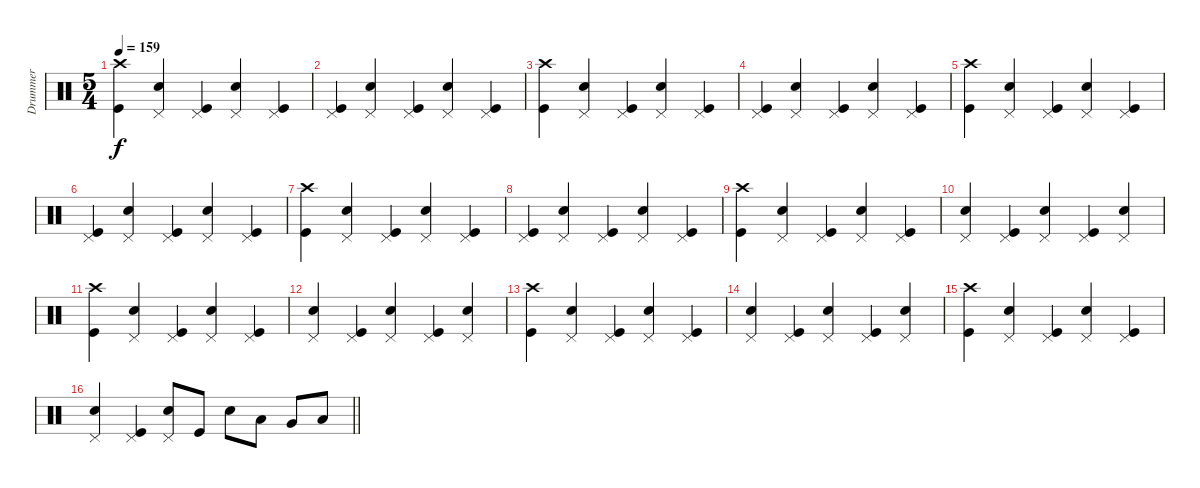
\track ("Drummer" "Drummer") {instrument percussion}
\staff {score}
\articulation defaults
\ts (5 4)
\tempo 159
\clef neutral
\ks c
("Kick (hit)" "Crash high (hit)").4{dy f} ("Pedal Hi-Hat (hit)" "Snare (hit) 2").4 ("Kick (hit)" "Pedal Hi-Hat (hit)").4 ("Pedal Hi-Hat (hit)" "Snare (hit) 2").4 ("Kick (hit)" "Pedal Hi-Hat (hit)").4 |
("Kick (hit)" "Pedal Hi-Hat (hit)").4 ("Pedal Hi-Hat (hit)" "Snare (hit) 2").4 ("Kick (hit)" "Pedal Hi-Hat (hit)").4 ("Pedal Hi-Hat (hit)" "Snare (hit) 2").4 ("Kick (hit)" "Pedal Hi-Hat (hit)").4 |
("Kick (hit)" "Crash high (hit)").4 ("Pedal Hi-Hat (hit)" "Snare (hit) 2").4 ("Kick (hit)" "Pedal Hi-Hat (hit)").4 ("Pedal Hi-Hat (hit)" "Snare (hit) 2").4 ("Kick (hit)" "Pedal Hi-Hat (hit)").4 |
("Kick (hit)" "Pedal Hi-Hat (hit)").4 ("Pedal Hi-Hat (hit)" "Snare (hit) 2").4 ("Kick (hit)" "Pedal Hi-Hat (hit)").4 ("Pedal Hi-Hat (hit)" "Snare (hit) 2").4 ("Kick (hit)" "Pedal Hi-Hat (hit)").4 |
("Kick (hit)" "Crash high (hit)").4 ("Pedal Hi-Hat (hit)" "Snare (hit) 2").4 ("Kick (hit)" "Pedal Hi-Hat (hit)").4 ("Pedal Hi-Hat (hit)" "Snare (hit) 2").4 ("Kick (hit)" "Pedal Hi-Hat (hit)").4 |
("Kick (hit)" "Pedal Hi-Hat (hit)").4 ("Pedal Hi-Hat (hit)" "Snare (hit) 2").4 ("Kick (hit)" "Pedal Hi-Hat (hit)").4 ("Pedal Hi-Hat (hit)" "Snare (hit) 2").4 ("Kick (hit)" "Pedal Hi-Hat (hit)").4 |
("Kick (hit)" "Crash high (hit)").4 ("Pedal Hi-Hat (hit)" "Snare (hit) 2").4 ("Kick (hit)" "Pedal Hi-Hat (hit)").4 ("Pedal Hi-Hat (hit)" "Snare (hit) 2").4 ("Kick (hit)" "Pedal Hi-Hat (hit)").4 |
("Kick (hit)" "Pedal Hi-Hat (hit)").4 ("Pedal Hi-Hat (hit)" "Snare (hit) 2").4 ("Kick (hit)" "Pedal Hi-Hat (hit)").4 ("Pedal Hi-Hat (hit)" "Snare (hit) 2").4 ("Kick (hit)" "Pedal Hi-Hat (hit)").4 |
("Kick (hit)" "Crash high (hit)").4 ("Pedal Hi-Hat (hit)" "Snare (hit) 2").4 ("Kick (hit)" "Pedal Hi-Hat (hit)").4 ("Pedal Hi-Hat (hit)" "Snare (hit) 2").4 ("Kick (hit)" "Pedal Hi-Hat (hit)").4 |
("Pedal Hi-Hat (hit)" "Snare (hit) 2").4 ("Kick (hit)" "Pedal Hi-Hat (hit)").4 ("Pedal Hi-Hat (hit)" "Snare (hit) 2").4 ("Kick (hit)" "Pedal Hi-Hat (hit)").4 ("Pedal Hi-Hat (hit)" "Snare (hit) 2").4 |
("Kick (hit)" "Crash high (hit)").4 ("Pedal Hi-Hat (hit)" "Snare (hit) 2").4 ("Kick (hit)" "Pedal Hi-Hat (hit)").4 ("Pedal Hi-Hat (hit)" "Snare (hit) 2").4 ("Kick (hit)" "Pedal Hi-Hat (hit)").4 |
("Pedal Hi-Hat (hit)" "Snare (hit) 2").4 ("Kick (hit)" "Pedal Hi-Hat (hit)").4 ("Pedal Hi-Hat (hit)" "Snare (hit) 2").4 ("Kick (hit)" "Pedal Hi-Hat (hit)").4 ("Pedal Hi-Hat (hit)" "Snare (hit) 2").4 |
("Kick (hit)" "Crash high (hit)").4 ("Pedal Hi-Hat (hit)" "Snare (hit) 2").4 ("Kick (hit)" "Pedal Hi-Hat (hit)").4 ("Pedal Hi-Hat (hit)" "Snare (hit) 2").4 ("Kick (hit)" "Pedal Hi-Hat (hit)").4 |
("Pedal Hi-Hat (hit)" "Snare (hit) 2").4 ("Kick (hit)" "Pedal Hi-Hat (hit)").4 ("Pedal Hi-Hat (hit)" "Snare (hit) 2").4 ("Kick (hit)" "Pedal Hi-Hat (hit)").4 ("Pedal Hi-Hat (hit)" "Snare (hit) 2").4 |
("Kick (hit)" "Crash high (hit)").4 ("Pedal Hi-Hat (hit)" "Snare (hit) 2").4 ("Kick (hit)" "Pedal Hi-Hat (hit)").4 ("Pedal Hi-Hat (hit)" "Snare (hit) 2").4 ("Kick (hit)" "Pedal Hi-Hat (hit)").4 |
\barLineRight lightlight
("Pedal Hi-Hat (hit)" "Snare (hit) 2").4 ("Kick (hit)" "Pedal Hi-Hat (hit)").4 ("Pedal Hi-Hat (hit)" "Snare (hit) 2").8 "Kick (hit)".8 "Electric Snare (hit)".8 "Low Floor Tom (hit)".8 "Very Low Tom (hit)".8 "Low Tom (hit)".8
